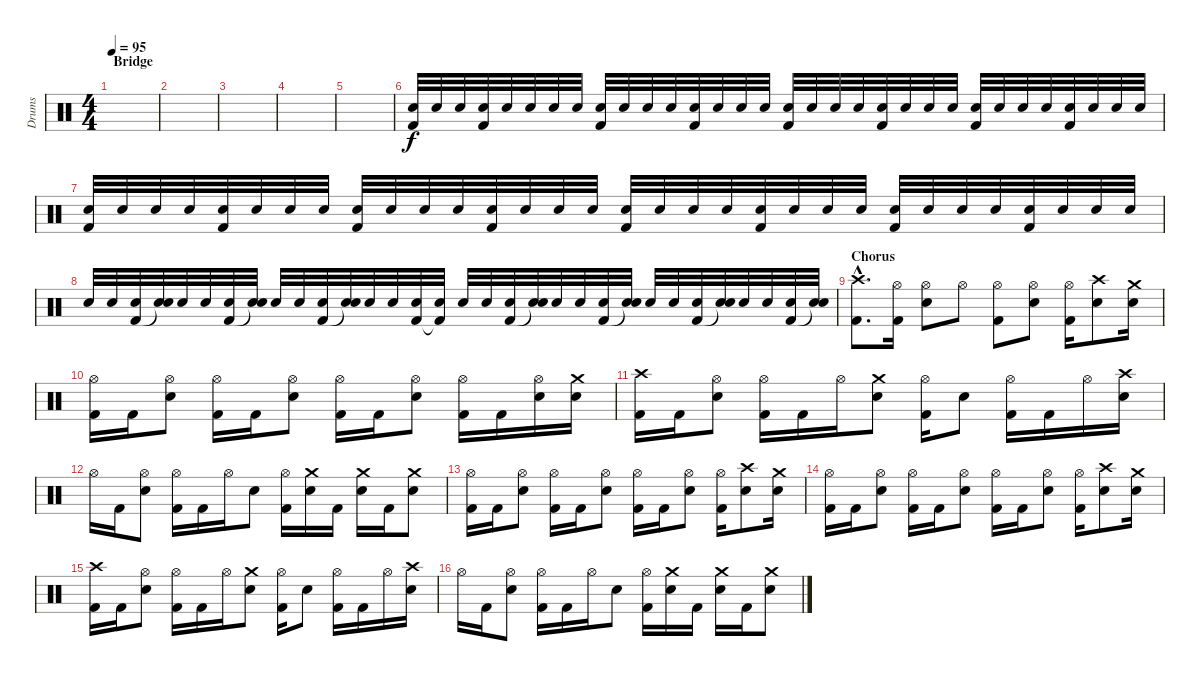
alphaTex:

\track ("Drums" "Drums") {instrument percussion}
\staff {score}
\articulation defaults
\ts (4 4)
\section ("" "Bridge")
\tempo 95
\clef neutral
\ks c
|
|
|
|
|
("Electric Snare (hit)" "Kick (hit) 2").32{volume 1} "Electric Snare (hit)".32 "Electric Snare (hit)".32 ("Electric Snare (hit)" "Kick (hit) 2").32 "Electric Snare (hit)".32 "Electric Snare (hit)".32 "Electric Snare (hit)".32 "Electric Snare (hit)".32 ("Electric Snare (hit)" "Kick (hit) 2").32{volume 2} "Electric Snare (hit)".32 "Electric Snare (hit)".32 "Electric Snare (hit)".32 ("Electric Snare (hit)" "Kick (hit) 2").32 "Electric Snare (hit)".32 "Electric Snare (hit)".32 "Electric Snare (hit)".32 ("Electric Snare (hit)" "Kick (hit) 2").32{volume 3} "Electric Snare (hit)".32 "Electric Snare (hit)".32 "Electric Snare (hit)".32 ("Electric Snare (hit)" "Kick (hit) 2").32 "Electric Snare (hit)".32 "Electric Snare (hit)".32 "Electric Snare (hit)".32 ("Electric Snare (hit)" "Kick (hit) 2").32{volume 4} "Electric Snare (hit)".32 "Electric Snare (hit)".32 "Electric Snare (hit)".32 ("Electric Snare (hit)" "Kick (hit) 2").32 "Electric Snare (hit)".32 "Electric Snare (hit)".32 "Electric Snare (hit)".32 |
("Electric Snare (hit)" "Kick (hit) 2").32{volume 5} "Electric Snare (hit)".32 "Electric Snare (hit)".32 "Electric Snare (hit)".32 ("Electric Snare (hit)" "Kick (hit) 2").32 "Electric Snare (hit)".32 "Electric Snare (hit)".32 "Electric Snare (hit)".32 ("Electric Snare (hit)" "Kick (hit) 2").32{volume 6} "Electric Snare (hit)".32 "Electric Snare (hit)".32 "Electric Snare (hit)".32 ("Electric Snare (hit)" "Kick (hit) 2").32 "Electric Snare (hit)".32 "Electric Snare (hit)".32 "Electric Snare (hit)".32 ("Electric Snare (hit)" "Kick (hit) 2").32{volume 7} "Electric Snare (hit)".32 "Electric Snare (hit)".32 "Electric Snare (hit)".32 ("Electric Snare (hit)" "Kick (hit) 2").32 "Electric Snare (hit)".32 "Electric Snare (hit)".32 "Electric Snare (hit)".32 ("Electric Snare (hit)" "Kick (hit) 2").32{volume 8} "Electric Snare (hit)".32 "Electric Snare (hit)".32 "Electric Snare (hit)".32 ("Electric Snare (hit)" "Kick (hit) 2").32 "Electric Snare (hit)".32 "Electric Snare (hit)".32 "Electric Snare (hit)".32 |
"Electric Snare (hit)".32{volume 9} "Electric Snare (hit)".32 ("Electric Snare (hit)" "Kick (hit) 2").32 ("Electric Snare (hit)" "Snare (hit)"{t}).32 "Electric Snare (hit)".32 "Electric Snare (hit)".32 ("Electric Snare (hit)" "Kick (hit) 2").32 ("Electric Snare (hit)" "Snare (hit)"{t}).32 "Electric Snare (hit)".32{volume 10} "Electric Snare (hit)".32 ("Electric Snare (hit)" "Kick (hit) 2").32 ("Electric Snare (hit)" "Snare (hit)"{t}).32 "Electric Snare (hit)".32 "Electric Snare (hit)".32 ("Electric Snare (hit)" "Kick (hit) 2").32 ("Electric Snare (hit)" "Kick (hit) 2"{t}).32 "Electric Snare (hit)".32{volume 11} "Electric Snare (hit)".32 ("Electric Snare (hit)" "Kick (hit) 2").32 ("Electric Snare (hit)" "Snare (hit)"{t}).32 "Electric Snare (hit)".32 "Electric Snare (hit)".32 ("Electric Snare (hit)" "Kick (hit) 2").32 ("Electric Snare (hit)" "Snare (hit)"{t}).32 "Electric Snare (hit)".32{volume 12} "Electric Snare (hit)".32 ("Electric Snare (hit)" "Kick (hit) 2").32 ("Electric Snare (hit)" "Snare (hit)"{t}).32 "Electric Snare (hit)".32 "Electric Snare (hit)".32 ("Electric Snare (hit)" "Kick (hit) 2").32 ("Electric Snare (hit)" "Snare (hit)"{t}).32 |
\section ("" "Chorus")
("Crash high (hit)"{hac} "Kick (hit) 2"{hac}).8{d} ("Hi-Hat (open)" "Kick (hit) 2").16 ("Hi-Hat (open)" "Electric Snare (hit)").8 "Hi-Hat (open)".8 ("Hi-Hat (open)" "Kick (hit) 2").8 ("Hi-Hat (open)" "Electric Snare (hit)").8 ("Hi-Hat (open)" "Kick (hit) 2").16 ("Crash high (hit)" "Electric Snare (hit)").8 ("Crash medium (hit)" "Electric Snare (hit)").16 |
("Hi-Hat (open)" "Kick (hit) 2").16 "Kick (hit) 2".16 ("Hi-Hat (open)" "Electric Snare (hit)").8 ("Hi-Hat (open)" "Kick (hit) 2").16 "Kick (hit) 2".16 ("Hi-Hat (open)" "Electric Snare (hit)").8 ("Hi-Hat (open)" "Kick (hit) 2").16 "Kick (hit) 2".16 ("Hi-Hat (open)" "Electric Snare (hit)").8 ("Hi-Hat (open)" "Kick (hit) 2").16 "Kick (hit) 2".16 ("Hi-Hat (open)" "Electric Snare (hit)").16 ("Crash medium (hit)" "Electric Snare (hit)").16 |
("Crash high (hit)" "Kick (hit) 2").16 "Kick (hit) 2".16 ("Hi-Hat (open)" "Electric Snare (hit)").8 ("Hi-Hat (open)" "Kick (hit) 2").16 "Kick (hit) 2".16 "Hi-Hat (open)".16 ("Crash medium (hit)" "Electric Snare (hit)").8 ("Hi-Hat (open)" "Kick (hit) 2").16 "Electric Snare (hit)".8 ("Hi-Hat (open)" "Kick (hit) 2").16 "Kick (hit) 2".16 "Hi-Hat (open)".16 ("Crash high (hit)" "Electric Snare (hit)").16 |
"Hi-Hat (open)".16 "Kick (hit) 2".16 ("Hi-Hat (open)" "Electric Snare (hit)").8 ("Hi-Hat (open)" "Kick (hit) 2").16 "Kick (hit) 2".16 "Hi-Hat (open)".16 "Electric Snare (hit)".8 ("Hi-Hat (open)" "Kick (hit) 2").16 ("Crash medium (hit)" "Electric Snare (hit)").16 "Kick (hit) 2".16 ("Crash medium (hit)" "Electric Snare (hit)").16 "Kick (hit) 2".16 ("Crash medium (hit)" "Electric Snare (hit)").8 |
("Hi-Hat (open)" "Kick (hit) 2").16 "Kick (hit) 2".16 ("Hi-Hat (open)" "Electric Snare (hit)").8 ("Hi-Hat (open)" "Kick (hit) 2").16 "Kick (hit) 2".16 ("Hi-Hat (open)" "Electric Snare (hit)").8 ("Hi-Hat (open)" "Kick (hit) 2").16 "Kick (hit) 2".16 ("Hi-Hat (open)" "Electric Snare (hit)").8 ("Hi-Hat (open)" "Kick (hit) 2").16 ("Crash high (hit)" "Electric Snare (hit)").8 ("Crash medium (hit)" "Electric Snare (hit)").16 |
("Hi-Hat (open)" "Kick (hit) 2").16 "Kick (hit) 2".16 ("Hi-Hat (open)" "Electric Snare (hit)").8 ("Hi-Hat (open)" "Kick (hit) 2").16 "Kick (hit) 2".16 ("Hi-Hat (open)" "Electric Snare (hit)").8 ("Hi-Hat (open)" "Kick (hit) 2").16 "Kick (hit) 2".16 ("Hi-Hat (open)" "Electric Snare (hit)").8 ("Hi-Hat (open)" "Kick (hit) 2").16 ("Crash high (hit)" "Electric Snare (hit)").8 ("Crash medium (hit)" "Electric Snare (hit)").16 |
("Crash high (hit)" "Kick (hit) 2").16 "Kick (hit) 2".16 ("Hi-Hat (open)" "Electric Snare (hit)").8 ("Hi-Hat (open)" "Kick (hit) 2").16 "Kick (hit) 2".16 "Hi-Hat (open)".16 ("Crash medium (hit)" "Electric Snare (hit)").8 ("Hi-Hat (open)" "Kick (hit) 2").16 "Electric Snare (hit)".8 ("Hi-Hat (open)" "Kick (hit) 2").16 "Kick (hit) 2".16 "Hi-Hat (open)".16 ("Crash high (hit)" "Electric Snare (hit)").16 |
"Hi-Hat (open)".16 "Kick (hit) 2".16 ("Hi-Hat (open)" "Electric Snare (hit)").8 ("Hi-Hat (open)" "Kick (hit) 2").16 "Kick (hit) 2".16 "Hi-Hat (open)".16 "Electric Snare (hit)".8 ("Hi-Hat (open)" "Kick (hit) 2").16 ("Crash medium (hit)" "Electric Snare (hit)").16 "Kick (hit) 2".16 ("Crash medium (hit)" "Electric Snare (hit)").16 "Kick (hit) 2".16 ("Crash medium (hit)" "Electric Snare (hit)").8
